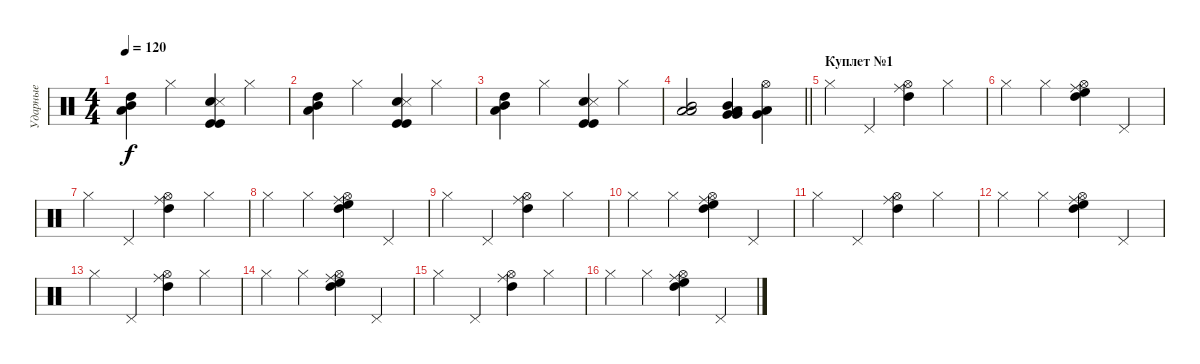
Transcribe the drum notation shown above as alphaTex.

\track ("Ударные" "Ударные") {instrument percussion}
\staff {score}
\articulation defaults
\ts (4 4)
\tempo 120
\clef neutral
\ks c
("Mid Tom (hit)" "Low Tom (hit)" "High Tom (hit)").4{dy f} "Hi-Hat (closed)".4 ("Kick (hit)" "Kick (hit)" "Snare (hit) 2" "Snare (side stick) 3").4 "Hi-Hat (closed)".4 |
("Mid Tom (hit)" "Low Tom (hit)" "High Tom (hit)").4 "Hi-Hat (closed)".4 ("Kick (hit)" "Kick (hit)" "Snare (hit) 2" "Snare (side stick) 3").4 "Hi-Hat (closed)".4 |
("Mid Tom (hit)" "Low Tom (hit)" "High Tom (hit)").4 "Hi-Hat (closed)".4 ("Kick (hit)" "Kick (hit)" "Snare (hit) 2" "Snare (side stick) 3").4 "Hi-Hat (closed)".4 |
\barLineRight lightlight
("Low Tom (hit)" "Mid Tom (hit)" "Low Tom (hit)").2 ("Very Low Tom (hit)" "Very Low Tom (hit)" "Mid Tom (hit)" "Low Floor Tom (hit)").4 ("Low Floor Tom (hit)" "Very Low Tom (hit)" "Hi-Hat (open)").4 |
\section ("" "Куплет №1")
"Hi-Hat (closed)".4 "Pedal Hi-Hat (hit)".4 ("Hi-Hat (open)" "High Tom (hit)" "Ride (middle)").4 "Hi-Hat (closed)".4 |
"Hi-Hat (closed)".4 "Hi-Hat (closed)".4 ("Ride (middle)" "Hi-Hat (open)" "High Tom (hit)" "High Floor Tom (hit)").4 "Pedal Hi-Hat (hit)".4 |
"Hi-Hat (closed)".4 "Pedal Hi-Hat (hit)".4 ("Hi-Hat (open)" "High Tom (hit)" "Ride (middle)").4 "Hi-Hat (closed)".4 |
"Hi-Hat (closed)".4 "Hi-Hat (closed)".4 ("Ride (middle)" "Hi-Hat (open)" "High Tom (hit)" "High Floor Tom (hit)").4 "Pedal Hi-Hat (hit)".4 |
"Hi-Hat (closed)".4 "Pedal Hi-Hat (hit)".4 ("Hi-Hat (open)" "High Tom (hit)" "Ride (middle)").4 "Hi-Hat (closed)".4 |
"Hi-Hat (closed)".4 "Hi-Hat (closed)".4 ("Ride (middle)" "Hi-Hat (open)" "High Tom (hit)" "High Floor Tom (hit)").4 "Pedal Hi-Hat (hit)".4 |
"Hi-Hat (closed)".4 "Pedal Hi-Hat (hit)".4 ("Hi-Hat (open)" "High Tom (hit)" "Ride (middle)").4 "Hi-Hat (closed)".4 |
"Hi-Hat (closed)".4 "Hi-Hat (closed)".4 ("Ride (middle)" "Hi-Hat (open)" "High Tom (hit)" "High Floor Tom (hit)").4 "Pedal Hi-Hat (hit)".4 |
"Hi-Hat (closed)".4 "Pedal Hi-Hat (hit)".4 ("Hi-Hat (open)" "High Tom (hit)" "Ride (middle)").4 "Hi-Hat (closed)".4 |
"Hi-Hat (closed)".4 "Hi-Hat (closed)".4 ("Ride (middle)" "Hi-Hat (open)" "High Tom (hit)" "High Floor Tom (hit)").4 "Pedal Hi-Hat (hit)".4 |
"Hi-Hat (closed)".4 "Pedal Hi-Hat (hit)".4 ("Hi-Hat (open)" "High Tom (hit)" "Ride (middle)").4 "Hi-Hat (closed)".4 |
"Hi-Hat (closed)".4 "Hi-Hat (closed)".4 ("Ride (middle)" "Hi-Hat (open)" "High Tom (hit)" "High Floor Tom (hit)").4 "Pedal Hi-Hat (hit)".4
